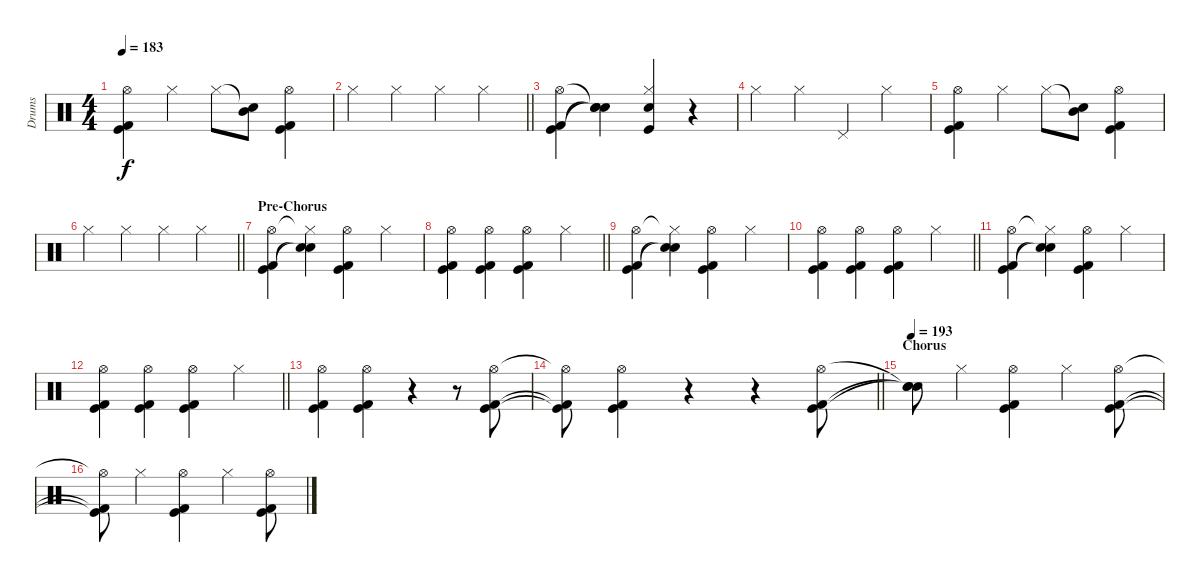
\track ("Drums" "Drums") {instrument percussion}
\staff
\articulation defaults
\ts (4 4)
\tempo 183
\clef neutral
\ks c
("Hi-Hat (open)" "Kick (hit)" "Kick (hit) 2").4{dy f} "Hi-Hat (closed)".4 "Hi-Hat (closed)".8 ("Snare (hit)"{t} "Mid Tom (hit)").8 ("Hi-Hat (open)" "Kick (hit)" "Kick (hit) 2").4 |
\barLineRight lightlight "Hi-Hat (closed)".4 "Hi-Hat (closed)".4 "Hi-Hat (closed)".4 "Hi-Hat (closed)".4
|
("Hi-Hat (open)" "Kick (hit)" "Kick (hit) 2").4 ("Snare (hit)"{t} "Snare (hit)"{t} "Snare (hit)"{t}).4 ("Hi-Hat (closed)" "Electric Snare (hit)" "Kick (hit)").4 r.4 |
"Hi-Hat (closed)".4 "Hi-Hat (closed)".4 "Pedal Hi-Hat (hit)".4 "Hi-Hat (closed)".4 |
("Hi-Hat (open)" "Kick (hit)" "Kick (hit) 2").4 "Hi-Hat (closed)".4 "Hi-Hat (closed)".8 ("Snare (hit)"{t} "Mid Tom (hit)").8 ("Hi-Hat (open)" "Kick (hit)" "Kick (hit) 2").4 |
\barLineRight lightlight "Hi-Hat (closed)".4 "Hi-Hat (closed)".4 "Hi-Hat (closed)".4 "Hi-Hat (closed)".4
|
\section ("" "Pre-Chorus")
("Hi-Hat (open)" "Kick (hit)" "Kick (hit) 2").4 ("Hi-Hat (closed)"{t} "Snare (hit)"{t} "Snare (hit)"{t}).4 ("Hi-Hat (open)" "Kick (hit)" "Kick (hit) 2").4 "Hi-Hat (closed)".4 |
\barLineRight lightlight
("Hi-Hat (open)" "Kick (hit)" "Kick (hit) 2").4 ("Hi-Hat (open)" "Kick (hit)" "Kick (hit) 2").4 ("Hi-Hat (open)" "Kick (hit)" "Kick (hit) 2").4 "Hi-Hat (closed)".4 |
("Hi-Hat (open)" "Kick (hit)" "Kick (hit) 2").4 ("Hi-Hat (closed)"{t} "Snare (hit)"{t} "Snare (hit)"{t}).4 ("Hi-Hat (open)" "Kick (hit)" "Kick (hit) 2").4 "Hi-Hat (closed)".4 |
\barLineRight lightlight
("Hi-Hat (open)" "Kick (hit)" "Kick (hit) 2").4 ("Hi-Hat (open)" "Kick (hit)" "Kick (hit) 2").4 ("Hi-Hat (open)" "Kick (hit)" "Kick (hit) 2").4 "Hi-Hat (closed)".4 |
("Hi-Hat (open)" "Kick (hit)" "Kick (hit) 2").4 ("Hi-Hat (closed)"{t} "Snare (hit)"{t} "Snare (hit)"{t}).4 ("Hi-Hat (open)" "Kick (hit)" "Kick (hit) 2").4 "Hi-Hat (closed)".4 |
\barLineRight lightlight
("Hi-Hat (open)" "Kick (hit)" "Kick (hit) 2").4 ("Hi-Hat (open)" "Kick (hit)" "Kick (hit) 2").4 ("Hi-Hat (open)" "Kick (hit)" "Kick (hit) 2").4 "Hi-Hat (closed)".4 |
("Hi-Hat (open)" "Kick (hit)" "Kick (hit) 2").4 ("Hi-Hat (open)" "Kick (hit)" "Kick (hit) 2").4 r.4 r.8 ("Hi-Hat (open)" "Kick (hit)" "Kick (hit) 2").8 |
\barLineRight lightlight
("Hi-Hat (open)"{t} "Kick (hit)"{t} "Kick (hit) 2"{t}).8 ("Hi-Hat (open)" "Kick (hit)" "Kick (hit) 2").4 r.4 r.4 ("Hi-Hat (open)" "Kick (hit)" "Kick (hit) 2").8 |
\section ("" "Chorus")
\tempo 193
("Snare (hit)"{t} "Snare (hit)"{t} "Snare (hit)"{t}).8 "Hi-Hat (closed)".4 ("Hi-Hat (open)" "Kick (hit)" "Kick (hit) 2").4 "Hi-Hat (closed)".4 ("Hi-Hat (open)" "Kick (hit)" "Kick (hit) 2").8 |
("Hi-Hat (open)"{t} "Kick (hit)"{t} "Kick (hit) 2"{t}).8 "Hi-Hat (closed)".4 ("Hi-Hat (open)" "Kick (hit)" "Kick (hit) 2").4 "Hi-Hat (closed)".4 ("Hi-Hat (open)" "Kick (hit)" "Kick (hit) 2").8
